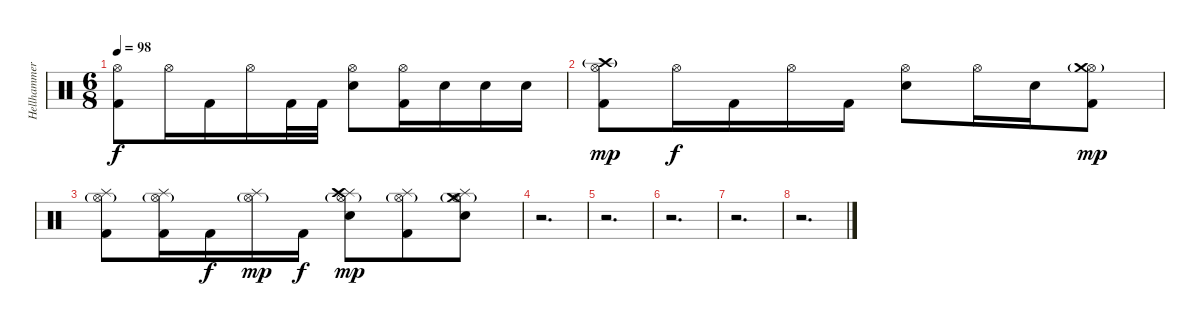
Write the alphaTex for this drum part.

\track ("Hellhammer (Drums)" "Hellhammer") {instrument percussion}
\staff {score}
\articulation defaults
\ts (6 8)
\tempo 98
\clef neutral
\ks c
("Kick (hit) 2" "Hi-Hat (open)").8{dy f} "Hi-Hat (open)".16 "Kick (hit) 2".16 "Hi-Hat (open)".16 "Kick (hit) 2".32 "Kick (hit) 2".32 ("Electric Snare (hit)" "Hi-Hat (open)").8 ("Kick (hit) 2" "Hi-Hat (open)").16 "Electric Snare (hit)".16 "Electric Snare (hit)".16 "Electric Snare (hit)".16 |
("Kick (hit) 2" "Hi-Hat (open)" "Crash high (hit)"{g}).8{dy mp} "Hi-Hat (open)".16{dy f} "Kick (hit) 2".16 "Hi-Hat (open)".16 "Kick (hit) 2".16 ("Electric Snare (hit)" "Hi-Hat (open)").8 "Hi-Hat (open)".16 "Electric Snare (hit)".16 ("Kick (hit) 2" "Hi-Hat (open)" "Crash medium (hit)"{g}).8{dy mp} |
("Kick (hit) 2" "Hi-Hat (open)"{g} "Splash (hit)").8 ("Kick (hit) 2" "Hi-Hat (open)"{g} "Splash (hit)").16 "Kick (hit) 2".16{dy f} ("Hi-Hat (open)"{g} "Splash (hit)").16{dy mp} "Kick (hit) 2".16{dy f} ("Electric Snare (hit)" "Hi-Hat (open)"{g} "Splash (hit)" "Crash high (hit)").8{dy mp} ("Kick (hit) 2" "Hi-Hat (open)"{g} "Splash (hit)").8 ("Electric Snare (hit)" "Hi-Hat (open)"{g} "Splash (hit)" "Crash medium (hit)").8 |
r.2{d} |
r.2{d} |
r.2{d} |
r.2{d} |
r.2{d}
